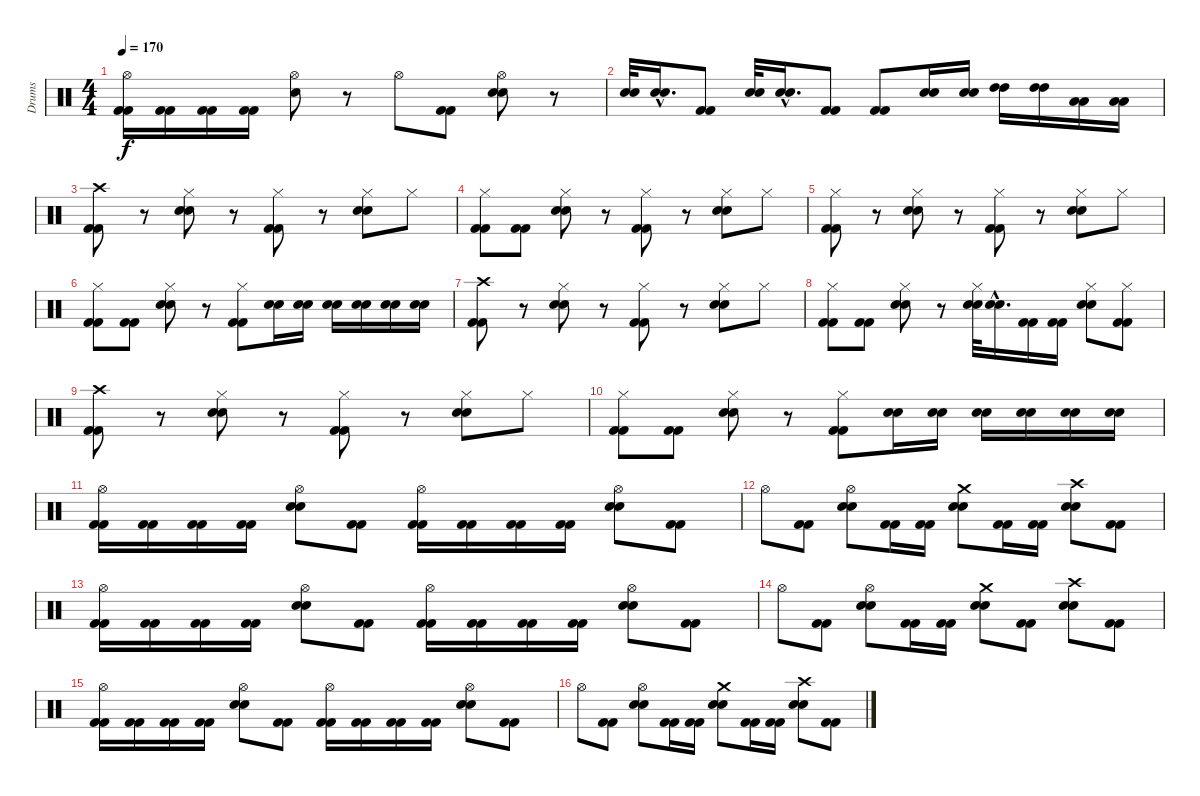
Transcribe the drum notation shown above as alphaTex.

\track ("Drums" "Drums") {instrument percussion}
\staff {score}
\articulation defaults
\ts (4 4)
\tempo 170
\clef neutral
\ks c
("Hi-Hat (open)" "Kick (hit) 2" "Kick (hit) 2").16{dy f} ("Kick (hit) 2" "Kick (hit) 2").16 ("Kick (hit) 2" "Kick (hit) 2").16 ("Kick (hit) 2" "Kick (hit) 2").16 ("Hi-Hat (open)" "Electric Snare (hit)").8 r.8 "Hi-Hat (open)".8 ("Kick (hit) 2" "Kick (hit) 2").8 ("Hi-Hat (open)" "Electric Snare (hit)" "Electric Snare (hit)").8 r.8 |
("Electric Snare (hit)" "Electric Snare (hit)").32 ("Electric Snare (hit)"{hac} "Electric Snare (hit)"{hac}).16{d} ("Kick (hit) 2" "Kick (hit) 2").8 ("Electric Snare (hit)" "Electric Snare (hit)").32 ("Electric Snare (hit)"{hac} "Electric Snare (hit)"{hac}).16{d} ("Kick (hit) 2" "Kick (hit) 2").8 ("Kick (hit) 2" "Kick (hit) 2").8 ("Electric Snare (hit)" "Electric Snare (hit)").16 ("Electric Snare (hit)" "Electric Snare (hit)").16 ("High Tom (hit)" "High Tom (hit)").16 ("High Tom (hit)" "High Tom (hit)").16 ("Low Tom (hit)" "Low Tom (hit)").16 ("Low Tom (hit)" "Low Tom (hit)").16 |
("Crash high (hit)" "Kick (hit) 2" "Kick (hit) 2").8 r.8 ("Hi-Hat (closed)" "Electric Snare (hit)" "Electric Snare (hit)").8 r.8 ("Hi-Hat (closed)" "Kick (hit) 2" "Kick (hit) 2").8 r.8 ("Hi-Hat (closed)" "Electric Snare (hit)" "Electric Snare (hit)").8 "Hi-Hat (closed)".8 |
("Hi-Hat (closed)" "Kick (hit) 2" "Kick (hit) 2").8 ("Kick (hit) 2" "Kick (hit) 2").8 ("Hi-Hat (closed)" "Electric Snare (hit)" "Electric Snare (hit)").8 r.8 ("Hi-Hat (closed)" "Kick (hit) 2" "Kick (hit) 2").8 r.8 ("Hi-Hat (closed)" "Electric Snare (hit)" "Electric Snare (hit)").8 "Hi-Hat (closed)".8 |
("Hi-Hat (closed)" "Kick (hit) 2" "Kick (hit) 2").8 r.8 ("Hi-Hat (closed)" "Electric Snare (hit)" "Electric Snare (hit)").8 r.8 ("Hi-Hat (closed)" "Kick (hit) 2" "Kick (hit) 2").8 r.8 ("Hi-Hat (closed)" "Electric Snare (hit)" "Electric Snare (hit)").8 "Hi-Hat (closed)".8 |
("Hi-Hat (closed)" "Kick (hit) 2" "Kick (hit) 2").8 ("Kick (hit) 2" "Kick (hit) 2").8 ("Hi-Hat (closed)" "Electric Snare (hit)" "Electric Snare (hit)").8 r.8 ("Hi-Hat (closed)" "Kick (hit) 2" "Kick (hit) 2").8 ("Electric Snare (hit)" "Electric Snare (hit)").16 ("Electric Snare (hit)" "Electric Snare (hit)").16 ("Electric Snare (hit)" "Electric Snare (hit)").16 ("Electric Snare (hit)" "Electric Snare (hit)").16 ("Electric Snare (hit)" "Electric Snare (hit)").16 ("Electric Snare (hit)" "Electric Snare (hit)").16 |
("Crash high (hit)" "Kick (hit) 2" "Kick (hit) 2").8 r.8 ("Hi-Hat (closed)" "Electric Snare (hit)" "Electric Snare (hit)").8 r.8 ("Hi-Hat (closed)" "Kick (hit) 2" "Kick (hit) 2").8 r.8 ("Hi-Hat (closed)" "Electric Snare (hit)" "Electric Snare (hit)").8 "Hi-Hat (closed)".8 |
("Hi-Hat (closed)" "Kick (hit) 2" "Kick (hit) 2").8 ("Kick (hit) 2" "Kick (hit) 2").8 ("Hi-Hat (closed)" "Electric Snare (hit)" "Electric Snare (hit)").8 r.8 ("Hi-Hat (closed)" "Electric Snare (hit)" "Electric Snare (hit)").32 ("Electric Snare (hit)"{hac} "Electric Snare (hit)"{hac}).16{d} ("Kick (hit) 2" "Kick (hit) 2").16 ("Kick (hit) 2" "Kick (hit) 2").16 ("Hi-Hat (closed)" "Electric Snare (hit)" "Electric Snare (hit)").8 ("Hi-Hat (closed)" "Kick (hit) 2" "Kick (hit) 2").8 |
("Crash high (hit)" "Kick (hit) 2" "Kick (hit) 2").8 r.8 ("Hi-Hat (closed)" "Electric Snare (hit)" "Electric Snare (hit)").8 r.8 ("Hi-Hat (closed)" "Kick (hit) 2" "Kick (hit) 2").8 r.8 ("Hi-Hat (closed)" "Electric Snare (hit)" "Electric Snare (hit)").8 "Hi-Hat (closed)".8 |
("Hi-Hat (closed)" "Kick (hit) 2" "Kick (hit) 2").8 ("Kick (hit) 2" "Kick (hit) 2").8 ("Hi-Hat (closed)" "Electric Snare (hit)" "Electric Snare (hit)").8 r.8 ("Hi-Hat (closed)" "Kick (hit) 2" "Kick (hit) 2").8 ("Electric Snare (hit)" "Electric Snare (hit)").16 ("Electric Snare (hit)" "Electric Snare (hit)").16 ("Electric Snare (hit)" "Electric Snare (hit)").16 ("Electric Snare (hit)" "Electric Snare (hit)").16 ("Electric Snare (hit)" "Electric Snare (hit)").16 ("Electric Snare (hit)" "Electric Snare (hit)").16 |
("Hi-Hat (open)" "Kick (hit) 2" "Kick (hit) 2").16 ("Kick (hit) 2" "Kick (hit) 2").16 ("Kick (hit) 2" "Kick (hit) 2").16 ("Kick (hit) 2" "Kick (hit) 2").16 ("Hi-Hat (open)" "Electric Snare (hit)" "Electric Snare (hit)").8 ("Kick (hit) 2" "Kick (hit) 2").8 ("Hi-Hat (open)" "Kick (hit) 2" "Kick (hit) 2").16 ("Kick (hit) 2" "Kick (hit) 2").16 ("Kick (hit) 2" "Kick (hit) 2").16 ("Kick (hit) 2" "Kick (hit) 2").16 ("Hi-Hat (open)" "Electric Snare (hit)" "Electric Snare (hit)").8 ("Kick (hit) 2" "Kick (hit) 2").8 |
"Hi-Hat (open)".8 ("Kick (hit) 2" "Kick (hit) 2").8 ("Hi-Hat (open)" "Electric Snare (hit)" "Electric Snare (hit)").8 ("Kick (hit) 2" "Kick (hit) 2").16 ("Kick (hit) 2" "Kick (hit) 2").16 ("Crash medium (hit)" "Electric Snare (hit)" "Electric Snare (hit)").8 ("Kick (hit) 2" "Kick (hit) 2").16 ("Kick (hit) 2" "Kick (hit) 2").16 ("Crash high (hit)" "Electric Snare (hit)" "Electric Snare (hit)").8 ("Kick (hit) 2" "Kick (hit) 2").8 |
("Hi-Hat (open)" "Kick (hit) 2" "Kick (hit) 2").16 ("Kick (hit) 2" "Kick (hit) 2").16 ("Kick (hit) 2" "Kick (hit) 2").16 ("Kick (hit) 2" "Kick (hit) 2").16 ("Hi-Hat (open)" "Electric Snare (hit)" "Electric Snare (hit)").8 ("Kick (hit) 2" "Kick (hit) 2").8 ("Hi-Hat (open)" "Kick (hit) 2" "Kick (hit) 2").16 ("Kick (hit) 2" "Kick (hit) 2").16 ("Kick (hit) 2" "Kick (hit) 2").16 ("Kick (hit) 2" "Kick (hit) 2").16 ("Hi-Hat (open)" "Electric Snare (hit)" "Electric Snare (hit)").8 ("Kick (hit) 2" "Kick (hit) 2").8 |
"Hi-Hat (open)".8 ("Kick (hit) 2" "Kick (hit) 2").8 ("Hi-Hat (open)" "Electric Snare (hit)" "Electric Snare (hit)").8 ("Kick (hit) 2" "Kick (hit) 2").16 ("Kick (hit) 2" "Kick (hit) 2").16 ("Crash medium (hit)" "Electric Snare (hit)" "Electric Snare (hit)").8 ("Kick (hit) 2" "Kick (hit) 2").8 ("Crash high (hit)" "Electric Snare (hit)" "Electric Snare (hit)").8 ("Kick (hit) 2" "Kick (hit) 2").8 |
("Hi-Hat (open)" "Kick (hit) 2" "Kick (hit) 2").16 ("Kick (hit) 2" "Kick (hit) 2").16 ("Kick (hit) 2" "Kick (hit) 2").16 ("Kick (hit) 2" "Kick (hit) 2").16 ("Hi-Hat (open)" "Electric Snare (hit)" "Electric Snare (hit)").8 ("Kick (hit) 2" "Kick (hit) 2").8 ("Hi-Hat (open)" "Kick (hit) 2" "Kick (hit) 2").16 ("Kick (hit) 2" "Kick (hit) 2").16 ("Kick (hit) 2" "Kick (hit) 2").16 ("Kick (hit) 2" "Kick (hit) 2").16 ("Hi-Hat (open)" "Electric Snare (hit)" "Electric Snare (hit)").8 ("Kick (hit) 2" "Kick (hit) 2").8 |
"Hi-Hat (open)".8 ("Kick (hit) 2" "Kick (hit) 2").8 ("Hi-Hat (open)" "Electric Snare (hit)" "Electric Snare (hit)").8 ("Kick (hit) 2" "Kick (hit) 2").16 ("Kick (hit) 2" "Kick (hit) 2").16 ("Crash medium (hit)" "Electric Snare (hit)" "Electric Snare (hit)").8 ("Kick (hit) 2" "Kick (hit) 2").16 ("Kick (hit) 2" "Kick (hit) 2").16 ("Crash high (hit)" "Electric Snare (hit)" "Electric Snare (hit)").8 ("Kick (hit) 2" "Kick (hit) 2").8
